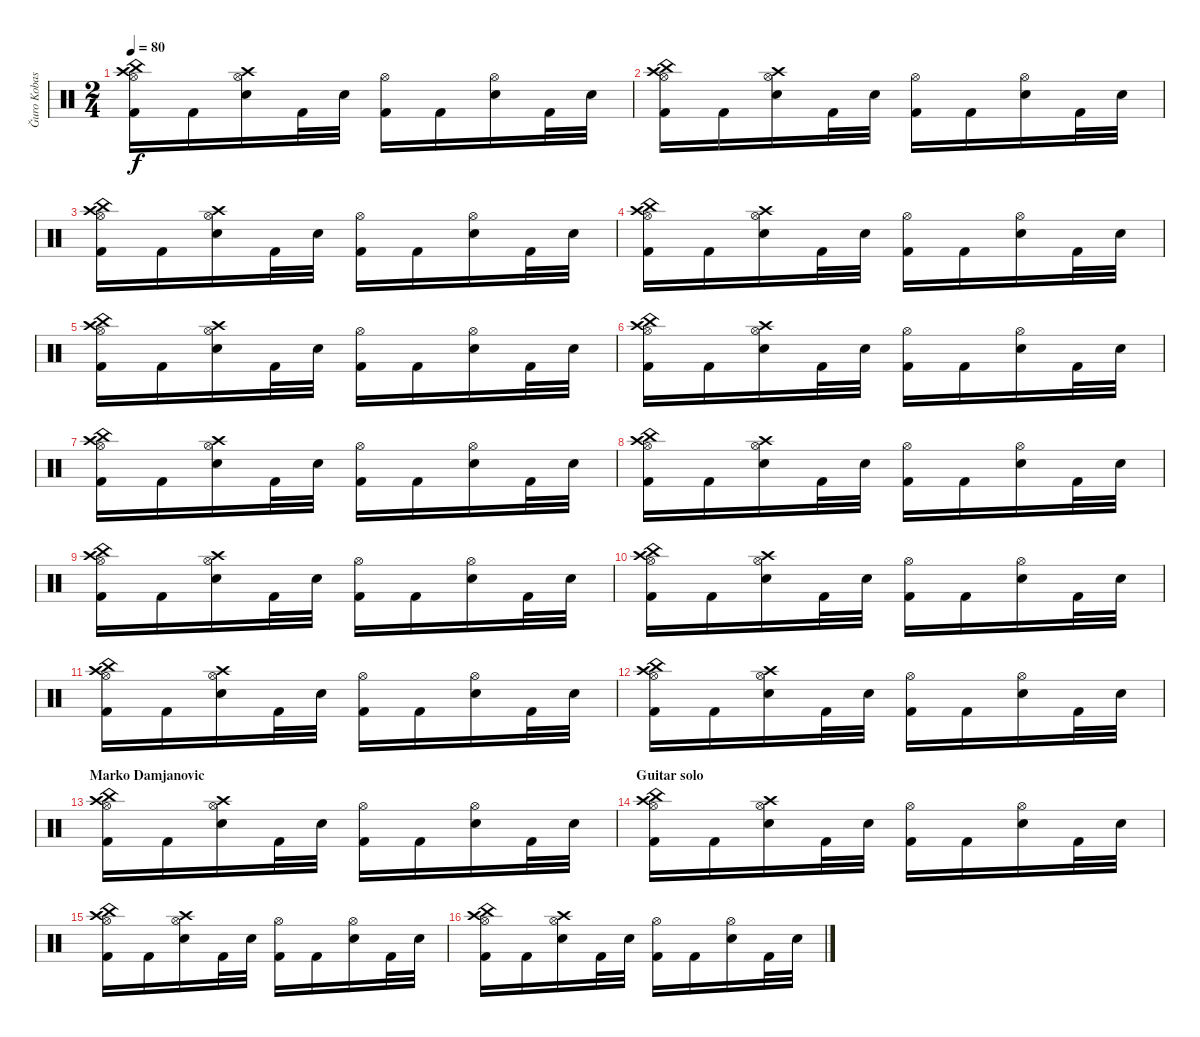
\track ("Ğuro Kobasiæmasniæ" "Ğuro Kobas") {instrument percussion}
\staff {score}
\articulation defaults
\ts (2 4)
\tempo 80
\clef neutral
\ks c
("China (hit)" "Crash high (hit)" "Hi-Hat (open)" "Kick (hit) 2").16{dy f} "Kick (hit) 2".16 ("Crash high (hit)" "Hi-Hat (open)" "Electric Snare (hit)").16 "Kick (hit) 2".32 "Electric Snare (hit)".32 ("Hi-Hat (open)" "Kick (hit) 2").16 "Kick (hit) 2".16 ("Hi-Hat (open)" "Electric Snare (hit)").16 "Kick (hit) 2".32 "Electric Snare (hit)".32 |
("China (hit)" "Crash high (hit)" "Hi-Hat (open)" "Kick (hit) 2").16 "Kick (hit) 2".16 ("Crash high (hit)" "Hi-Hat (open)" "Electric Snare (hit)").16 "Kick (hit) 2".32 "Electric Snare (hit)".32 ("Hi-Hat (open)" "Kick (hit) 2").16 "Kick (hit) 2".16 ("Hi-Hat (open)" "Electric Snare (hit)").16 "Kick (hit) 2".32 "Electric Snare (hit)".32 |
("China (hit)" "Crash high (hit)" "Hi-Hat (open)" "Kick (hit) 2").16 "Kick (hit) 2".16 ("Crash high (hit)" "Hi-Hat (open)" "Electric Snare (hit)").16 "Kick (hit) 2".32 "Electric Snare (hit)".32 ("Hi-Hat (open)" "Kick (hit) 2").16 "Kick (hit) 2".16 ("Hi-Hat (open)" "Electric Snare (hit)").16 "Kick (hit) 2".32 "Electric Snare (hit)".32 |
("China (hit)" "Crash high (hit)" "Hi-Hat (open)" "Kick (hit) 2").16 "Kick (hit) 2".16 ("Crash high (hit)" "Hi-Hat (open)" "Electric Snare (hit)").16 "Kick (hit) 2".32 "Electric Snare (hit)".32 ("Hi-Hat (open)" "Kick (hit) 2").16 "Kick (hit) 2".16 ("Hi-Hat (open)" "Electric Snare (hit)").16 "Kick (hit) 2".32 "Electric Snare (hit)".32 |
("China (hit)" "Crash high (hit)" "Hi-Hat (open)" "Kick (hit) 2").16 "Kick (hit) 2".16 ("Crash high (hit)" "Hi-Hat (open)" "Electric Snare (hit)").16 "Kick (hit) 2".32 "Electric Snare (hit)".32 ("Hi-Hat (open)" "Kick (hit) 2").16 "Kick (hit) 2".16 ("Hi-Hat (open)" "Electric Snare (hit)").16 "Kick (hit) 2".32 "Electric Snare (hit)".32 |
("China (hit)" "Crash high (hit)" "Hi-Hat (open)" "Kick (hit) 2").16 "Kick (hit) 2".16 ("Crash high (hit)" "Hi-Hat (open)" "Electric Snare (hit)").16 "Kick (hit) 2".32 "Electric Snare (hit)".32 ("Hi-Hat (open)" "Kick (hit) 2").16 "Kick (hit) 2".16 ("Hi-Hat (open)" "Electric Snare (hit)").16 "Kick (hit) 2".32 "Electric Snare (hit)".32 |
("China (hit)" "Crash high (hit)" "Hi-Hat (open)" "Kick (hit) 2").16 "Kick (hit) 2".16 ("Crash high (hit)" "Hi-Hat (open)" "Electric Snare (hit)").16 "Kick (hit) 2".32 "Electric Snare (hit)".32 ("Hi-Hat (open)" "Kick (hit) 2").16 "Kick (hit) 2".16 ("Hi-Hat (open)" "Electric Snare (hit)").16 "Kick (hit) 2".32 "Electric Snare (hit)".32 |
("China (hit)" "Crash high (hit)" "Hi-Hat (open)" "Kick (hit) 2").16 "Kick (hit) 2".16 ("Crash high (hit)" "Hi-Hat (open)" "Electric Snare (hit)").16 "Kick (hit) 2".32 "Electric Snare (hit)".32 ("Hi-Hat (open)" "Kick (hit) 2").16 "Kick (hit) 2".16 ("Hi-Hat (open)" "Electric Snare (hit)").16 "Kick (hit) 2".32 "Electric Snare (hit)".32 |
("China (hit)" "Crash high (hit)" "Hi-Hat (open)" "Kick (hit) 2").16 "Kick (hit) 2".16 ("Crash high (hit)" "Hi-Hat (open)" "Electric Snare (hit)").16 "Kick (hit) 2".32 "Electric Snare (hit)".32 ("Hi-Hat (open)" "Kick (hit) 2").16 "Kick (hit) 2".16 ("Hi-Hat (open)" "Electric Snare (hit)").16 "Kick (hit) 2".32 "Electric Snare (hit)".32 |
("China (hit)" "Crash high (hit)" "Hi-Hat (open)" "Kick (hit) 2").16 "Kick (hit) 2".16 ("Crash high (hit)" "Hi-Hat (open)" "Electric Snare (hit)").16 "Kick (hit) 2".32 "Electric Snare (hit)".32 ("Hi-Hat (open)" "Kick (hit) 2").16 "Kick (hit) 2".16 ("Hi-Hat (open)" "Electric Snare (hit)").16 "Kick (hit) 2".32 "Electric Snare (hit)".32 |
("China (hit)" "Crash high (hit)" "Hi-Hat (open)" "Kick (hit) 2").16 "Kick (hit) 2".16 ("Crash high (hit)" "Hi-Hat (open)" "Electric Snare (hit)").16 "Kick (hit) 2".32 "Electric Snare (hit)".32 ("Hi-Hat (open)" "Kick (hit) 2").16 "Kick (hit) 2".16 ("Hi-Hat (open)" "Electric Snare (hit)").16 "Kick (hit) 2".32 "Electric Snare (hit)".32 |
("China (hit)" "Crash high (hit)" "Hi-Hat (open)" "Kick (hit) 2").16 "Kick (hit) 2".16 ("Crash high (hit)" "Hi-Hat (open)" "Electric Snare (hit)").16 "Kick (hit) 2".32 "Electric Snare (hit)".32 ("Hi-Hat (open)" "Kick (hit) 2").16 "Kick (hit) 2".16 ("Hi-Hat (open)" "Electric Snare (hit)").16 "Kick (hit) 2".32 "Electric Snare (hit)".32 |
\section ("" "Marko Damjanovic")
("China (hit)" "Crash high (hit)" "Hi-Hat (open)" "Kick (hit) 2").16 "Kick (hit) 2".16 ("Crash high (hit)" "Hi-Hat (open)" "Electric Snare (hit)").16 "Kick (hit) 2".32 "Electric Snare (hit)".32 ("Hi-Hat (open)" "Kick (hit) 2").16 "Kick (hit) 2".16 ("Hi-Hat (open)" "Electric Snare (hit)").16 "Kick (hit) 2".32 "Electric Snare (hit)".32 |
\section ("" "Guitar solo")
("China (hit)" "Crash high (hit)" "Hi-Hat (open)" "Kick (hit) 2").16 "Kick (hit) 2".16 ("Crash high (hit)" "Hi-Hat (open)" "Electric Snare (hit)").16 "Kick (hit) 2".32 "Electric Snare (hit)".32 ("Hi-Hat (open)" "Kick (hit) 2").16 "Kick (hit) 2".16 ("Hi-Hat (open)" "Electric Snare (hit)").16 "Kick (hit) 2".32 "Electric Snare (hit)".32 |
("China (hit)" "Crash high (hit)" "Hi-Hat (open)" "Kick (hit) 2").16 "Kick (hit) 2".16 ("Crash high (hit)" "Hi-Hat (open)" "Electric Snare (hit)").16 "Kick (hit) 2".32 "Electric Snare (hit)".32 ("Hi-Hat (open)" "Kick (hit) 2").16 "Kick (hit) 2".16 ("Hi-Hat (open)" "Electric Snare (hit)").16 "Kick (hit) 2".32 "Electric Snare (hit)".32 |
("China (hit)" "Crash high (hit)" "Hi-Hat (open)" "Kick (hit) 2").16 "Kick (hit) 2".16 ("Crash high (hit)" "Hi-Hat (open)" "Electric Snare (hit)").16 "Kick (hit) 2".32 "Electric Snare (hit)".32 ("Hi-Hat (open)" "Kick (hit) 2").16 "Kick (hit) 2".16 ("Hi-Hat (open)" "Electric Snare (hit)").16 "Kick (hit) 2".32 "Electric Snare (hit)".32
